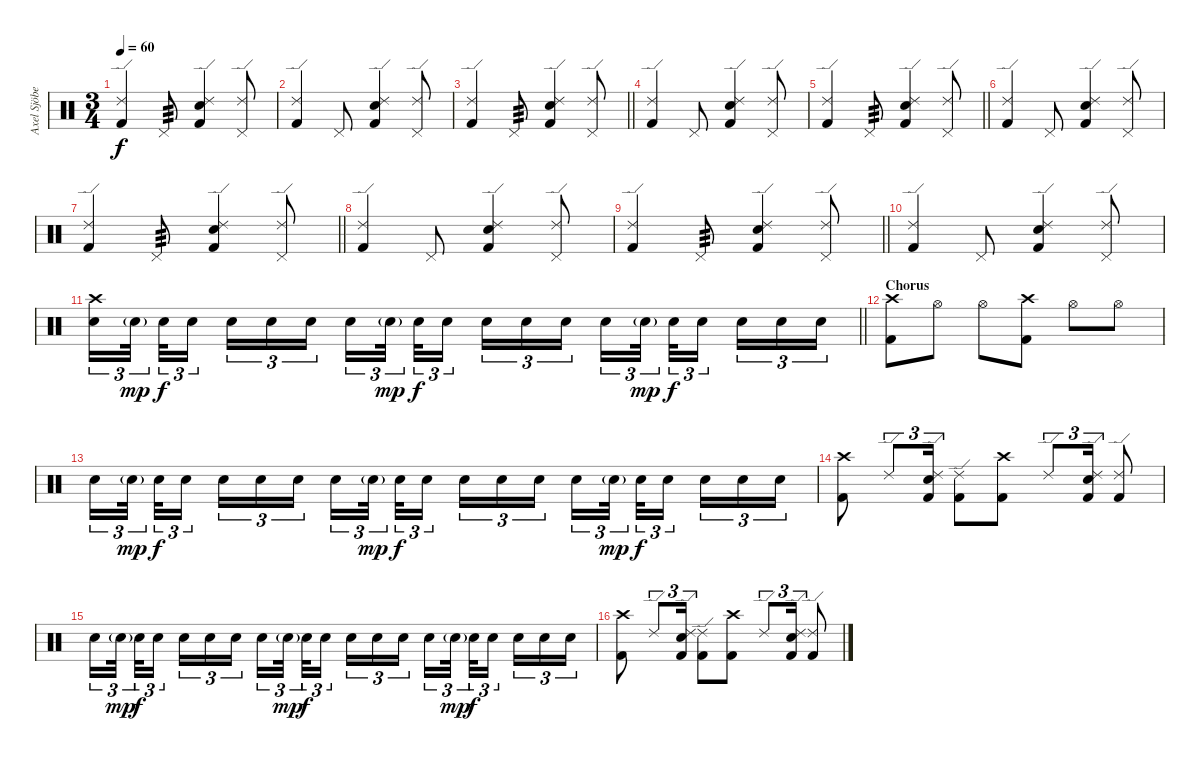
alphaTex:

\track ("Axel Sjöberg " "Axel Sjöbe") {instrument percussion}
\staff {score}
\articulation defaults
\ts (3 4)
\tempo 60
\clef neutral
\ks c
("Kick (hit) 2" "Ride (edge) 2").4{dy f} "Pedal Hi-Hat (hit)".8{tp 3} ("Kick (hit) 2" "Snare (hit) 2" "Ride (edge) 2").4 ("Ride (edge) 2" "Pedal Hi-Hat (hit)").8 |
("Kick (hit) 2" "Ride (edge) 2").4 "Pedal Hi-Hat (hit)".8 ("Kick (hit) 2" "Snare (hit) 2" "Ride (edge) 2").4 ("Ride (edge) 2" "Pedal Hi-Hat (hit)").8 |
\barLineRight lightlight
("Kick (hit) 2" "Ride (edge) 2").4 "Pedal Hi-Hat (hit)".8{tp 3} ("Kick (hit) 2" "Snare (hit) 2" "Ride (edge) 2").4 ("Ride (edge) 2" "Pedal Hi-Hat (hit)").8 |
("Kick (hit) 2" "Ride (edge) 2").4 "Pedal Hi-Hat (hit)".8 ("Kick (hit) 2" "Snare (hit) 2" "Ride (edge) 2").4 ("Ride (edge) 2" "Pedal Hi-Hat (hit)").8 |
\barLineRight lightlight
("Kick (hit) 2" "Ride (edge) 2").4 "Pedal Hi-Hat (hit)".8{tp 3} ("Kick (hit) 2" "Snare (hit) 2" "Ride (edge) 2").4 ("Ride (edge) 2" "Pedal Hi-Hat (hit)").8 |
("Kick (hit) 2" "Ride (edge) 2").4 "Pedal Hi-Hat (hit)".8 ("Kick (hit) 2" "Snare (hit) 2" "Ride (edge) 2").4 ("Ride (edge) 2" "Pedal Hi-Hat (hit)").8 |
\barLineRight lightlight
("Kick (hit) 2" "Ride (edge) 2").4 "Pedal Hi-Hat (hit)".8{tp 3} ("Kick (hit) 2" "Snare (hit) 2" "Ride (edge) 2").4 ("Ride (edge) 2" "Pedal Hi-Hat (hit)").8 |
("Kick (hit) 2" "Ride (edge) 2").4 "Pedal Hi-Hat (hit)".8 ("Kick (hit) 2" "Snare (hit) 2" "Ride (edge) 2").4 ("Ride (edge) 2" "Pedal Hi-Hat (hit)").8 |
\barLineRight lightlight
("Kick (hit) 2" "Ride (edge) 2").4 "Pedal Hi-Hat (hit)".8{tp 3} ("Kick (hit) 2" "Snare (hit) 2" "Ride (edge) 2").4 ("Ride (edge) 2" "Pedal Hi-Hat (hit)").8 |
("Kick (hit) 2" "Ride (edge) 2").4 "Pedal Hi-Hat (hit)".8 ("Kick (hit) 2" "Snare (hit) 2" "Ride (edge) 2").4 ("Ride (edge) 2" "Pedal Hi-Hat (hit)").8 |
\barLineRight lightlight
("Snare (hit) 2" "Crash high (hit)").16{tu (3 2)} "Snare (hit) 2"{g}.32{tu (3 2) dy mp beam splitsecondary} "Snare (hit) 2".32{tu (3 2) dy f} "Snare (hit) 2".16{tu (3 2) beam splitsecondary} "Snare (hit) 2".16{tu (3 2)} "Snare (hit) 2".16{tu (3 2)} "Snare (hit) 2".16{tu (3 2)} "Snare (hit) 2".16{tu (3 2)} "Snare (hit) 2"{g}.32{tu (3 2) dy mp beam splitsecondary} "Snare (hit) 2".32{tu (3 2) dy f} "Snare (hit) 2".16{tu (3 2) beam splitsecondary} "Snare (hit) 2".16{tu (3 2)} "Snare (hit) 2".16{tu (3 2)} "Snare (hit) 2".16{tu (3 2)} "Snare (hit) 2".16{tu (3 2)} "Snare (hit) 2"{g}.32{tu (3 2) dy mp beam splitsecondary} "Snare (hit) 2".32{tu (3 2) dy f} "Snare (hit) 2".16{tu (3 2) beam splitsecondary} "Snare (hit) 2".16{tu (3 2)} "Snare (hit) 2".16{tu (3 2)} "Snare (hit) 2".16{tu (3 2)} |
\section ("" "Chorus")
("Kick (hit) 2" "Crash high (hit)").8 "Hi-Hat (open)".8 "Hi-Hat (open)".8 ("Kick (hit) 2" "Crash high (hit)").8 "Hi-Hat (open)".8 "Hi-Hat (open)".8 |
"Snare (hit) 2".16{tu (3 2)} "Snare (hit) 2"{g}.32{tu (3 2) dy mp beam splitsecondary} "Snare (hit) 2".32{tu (3 2) dy f} "Snare (hit) 2".16{tu (3 2) beam splitsecondary} "Snare (hit) 2".16{tu (3 2)} "Snare (hit) 2".16{tu (3 2)} "Snare (hit) 2".16{tu (3 2)} "Snare (hit) 2".16{tu (3 2)} "Snare (hit) 2"{g}.32{tu (3 2) dy mp beam splitsecondary} "Snare (hit) 2".32{tu (3 2) dy f} "Snare (hit) 2".16{tu (3 2) beam splitsecondary} "Snare (hit) 2".16{tu (3 2)} "Snare (hit) 2".16{tu (3 2)} "Snare (hit) 2".16{tu (3 2)} "Snare (hit) 2".16{tu (3 2)} "Snare (hit) 2"{g}.32{tu (3 2) dy mp beam splitsecondary} "Snare (hit) 2".32{tu (3 2) dy f} "Snare (hit) 2".16{tu (3 2) beam splitsecondary} "Snare (hit) 2".16{tu (3 2)} "Snare (hit) 2".16{tu (3 2)} "Snare (hit) 2".16{tu (3 2)} |
("Kick (hit) 2" "Crash high (hit)").8 "Ride (edge) 2".8{tu (3 2)} ("Kick (hit) 2" "Snare (hit) 2" "Ride (edge) 2").16{tu (3 2)} ("Kick (hit) 2" "Ride (edge) 2").8 ("Kick (hit) 2" "Crash high (hit)").8 "Ride (edge) 2".8{tu (3 2)} ("Kick (hit) 2" "Snare (hit) 2" "Ride (edge) 2").16{tu (3 2)} ("Kick (hit) 2" "Ride (edge) 2").8 |
"Snare (hit) 2".16{tu (3 2)} "Snare (hit) 2"{g}.32{tu (3 2) dy mp beam splitsecondary} "Snare (hit) 2".32{tu (3 2) dy f} "Snare (hit) 2".16{tu (3 2) beam splitsecondary} "Snare (hit) 2".16{tu (3 2)} "Snare (hit) 2".16{tu (3 2)} "Snare (hit) 2".16{tu (3 2)} "Snare (hit) 2".16{tu (3 2)} "Snare (hit) 2"{g}.32{tu (3 2) dy mp beam splitsecondary} "Snare (hit) 2".32{tu (3 2) dy f} "Snare (hit) 2".16{tu (3 2) beam splitsecondary} "Snare (hit) 2".16{tu (3 2)} "Snare (hit) 2".16{tu (3 2)} "Snare (hit) 2".16{tu (3 2)} "Snare (hit) 2".16{tu (3 2)} "Snare (hit) 2"{g}.32{tu (3 2) dy mp beam splitsecondary} "Snare (hit) 2".32{tu (3 2) dy f} "Snare (hit) 2".16{tu (3 2) beam splitsecondary} "Snare (hit) 2".16{tu (3 2)} "Snare (hit) 2".16{tu (3 2)} "Snare (hit) 2".16{tu (3 2)} |
("Kick (hit) 2" "Crash high (hit)").8 "Ride (edge) 2".8{tu (3 2)} ("Kick (hit) 2" "Snare (hit) 2" "Ride (edge) 2").16{tu (3 2)} ("Kick (hit) 2" "Ride (edge) 2").8 ("Kick (hit) 2" "Crash high (hit)").8 "Ride (edge) 2".8{tu (3 2)} ("Kick (hit) 2" "Snare (hit) 2" "Ride (edge) 2").16{tu (3 2)} ("Kick (hit) 2" "Ride (edge) 2").8
